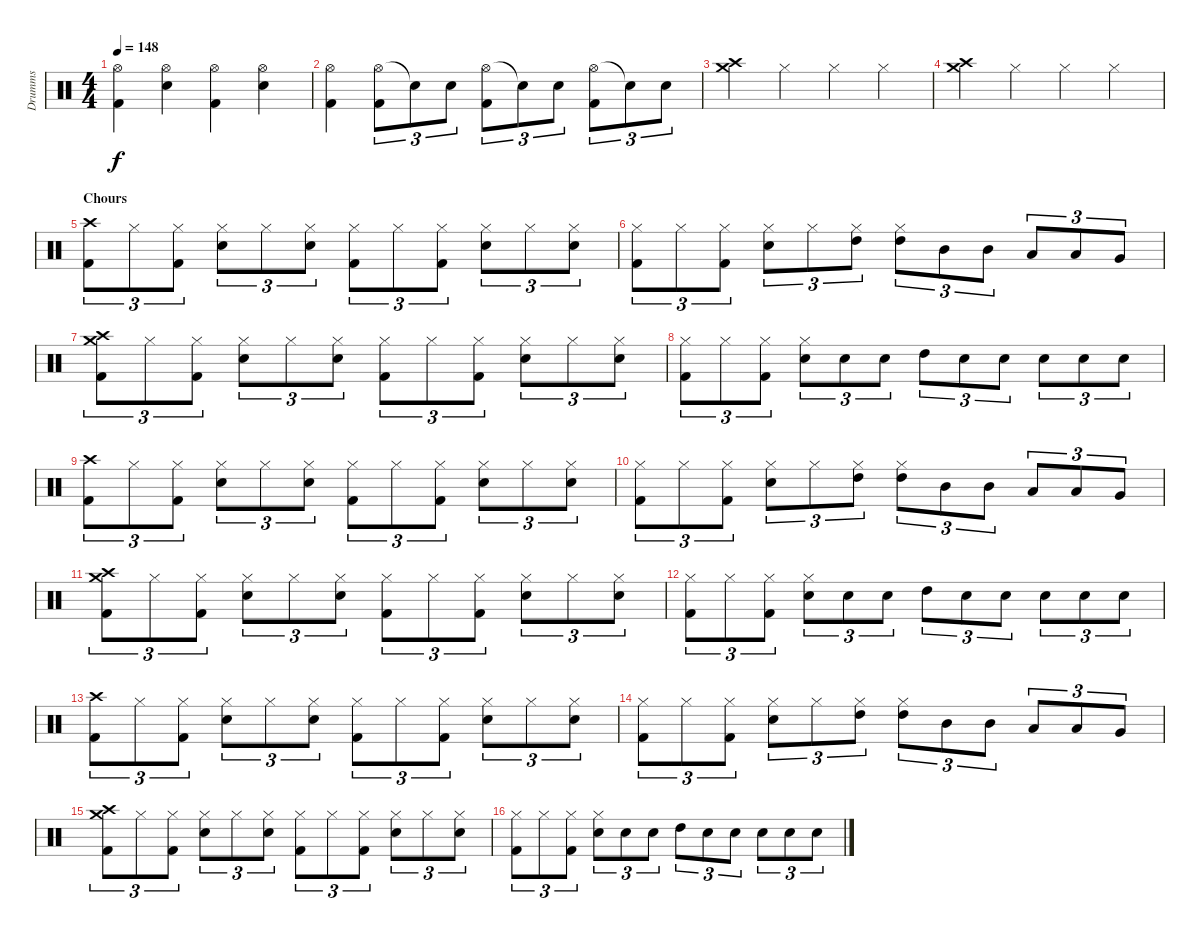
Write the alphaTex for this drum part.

\track ("Drumms" "Drumms") {instrument percussion}
\staff {score}
\articulation defaults
\ts (4 4)
\tempo 148
\clef neutral
\ks c
("Hi-Hat (open)" "Kick (hit) 2").4{dy f} ("Hi-Hat (open)" "Snare (hit) 2").4 ("Hi-Hat (open)" "Kick (hit) 2").4 ("Hi-Hat (open)" "Snare (hit) 2").4 |
("Hi-Hat (open)" "Kick (hit) 2").4 ("Hi-Hat (open)" "Kick (hit) 2").8{tu (3 2)} "Snare (hit)"{t}.8{tu (3 2)} "Snare (hit) 2".8{tu (3 2)} ("Hi-Hat (open)" "Kick (hit) 2").8{tu (3 2)} "Snare (hit)"{t}.8{tu (3 2)} "Snare (hit) 2".8{tu (3 2)} ("Hi-Hat (open)" "Kick (hit) 2").8{tu (3 2)} "Snare (hit) 2"{t}.8{tu (3 2)} "Snare (hit) 2".8{tu (3 2)} |
("Crash medium (hit)" "Crash high (hit)").4 "Hi-Hat (closed)".4 "Hi-Hat (closed)".4 "Hi-Hat (closed)".4 |
("Crash medium (hit)" "Crash high (hit)").4 "Hi-Hat (closed)".4 "Hi-Hat (closed)".4 "Hi-Hat (closed)".4 |
\section ("" "Chours")
("Crash high (hit)" "Kick (hit) 2").8{tu (3 2)} "Hi-Hat (closed)".8{tu (3 2)} ("Hi-Hat (closed)" "Kick (hit) 2").8{tu (3 2)} ("Hi-Hat (closed)" "Snare (hit) 2").8{tu (3 2)} "Hi-Hat (closed)".8{tu (3 2)} ("Hi-Hat (closed)" "Snare (hit) 2").8{tu (3 2)} ("Hi-Hat (closed)" "Kick (hit) 2").8{tu (3 2)} "Hi-Hat (closed)".8{tu (3 2)} ("Hi-Hat (closed)" "Kick (hit) 2").8{tu (3 2)} ("Hi-Hat (closed)" "Snare (hit) 2").8{tu (3 2)} "Hi-Hat (closed)".8{tu (3 2)} ("Hi-Hat (closed)" "Snare (hit) 2").8{tu (3 2)} |
("Hi-Hat (closed)" "Kick (hit) 2").8{tu (3 2)} "Hi-Hat (closed)".8{tu (3 2)} ("Hi-Hat (closed)" "Kick (hit) 2").8{tu (3 2)} ("Hi-Hat (closed)" "Snare (hit) 2").8{tu (3 2)} "Hi-Hat (closed)".8{tu (3 2)} ("Hi-Hat (closed)" "High Tom (hit)").8{tu (3 2)} ("Hi-Hat (closed)" "High Tom (hit)").8{tu (3 2)} "Mid Tom (hit)".8{tu (3 2)} "Mid Tom (hit)".8{tu (3 2)} "Low Tom (hit)".8{tu (3 2)} "Low Tom (hit)".8{tu (3 2)} "Very Low Tom (hit)".8{tu (3 2)} |
("Crash high (hit)" "Crash medium (hit)" "Kick (hit) 2").8{tu (3 2)} "Hi-Hat (closed)".8{tu (3 2)} ("Hi-Hat (closed)" "Kick (hit) 2").8{tu (3 2)} ("Hi-Hat (closed)" "Snare (hit) 2").8{tu (3 2)} "Hi-Hat (closed)".8{tu (3 2)} ("Hi-Hat (closed)" "Snare (hit) 2").8{tu (3 2)} ("Hi-Hat (closed)" "Kick (hit) 2").8{tu (3 2)} "Hi-Hat (closed)".8{tu (3 2)} ("Hi-Hat (closed)" "Kick (hit) 2").8{tu (3 2)} ("Hi-Hat (closed)" "Snare (hit) 2").8{tu (3 2)} "Hi-Hat (closed)".8{tu (3 2)} ("Hi-Hat (closed)" "Snare (hit) 2").8{tu (3 2)} |
("Hi-Hat (closed)" "Kick (hit) 2").8{tu (3 2)} "Hi-Hat (closed)".8{tu (3 2)} ("Hi-Hat (closed)" "Kick (hit) 2").8{tu (3 2)} ("Hi-Hat (closed)" "Snare (hit) 2").8{tu (3 2)} "Snare (hit) 2".8{tu (3 2)} "Snare (hit) 2".8{tu (3 2)} "High Tom (hit)".8{tu (3 2)} "Snare (hit) 2".8{tu (3 2)} "Snare (hit) 2".8{tu (3 2)} "Snare (hit) 2".8{tu (3 2)} "Snare (hit) 2".8{tu (3 2)} "Snare (hit) 2".8{tu (3 2)} |
("Crash high (hit)" "Kick (hit) 2").8{tu (3 2)} "Hi-Hat (closed)".8{tu (3 2)} ("Hi-Hat (closed)" "Kick (hit) 2").8{tu (3 2)} ("Hi-Hat (closed)" "Snare (hit) 2").8{tu (3 2)} "Hi-Hat (closed)".8{tu (3 2)} ("Hi-Hat (closed)" "Snare (hit) 2").8{tu (3 2)} ("Hi-Hat (closed)" "Kick (hit) 2").8{tu (3 2)} "Hi-Hat (closed)".8{tu (3 2)} ("Hi-Hat (closed)" "Kick (hit) 2").8{tu (3 2)} ("Hi-Hat (closed)" "Snare (hit) 2").8{tu (3 2)} "Hi-Hat (closed)".8{tu (3 2)} ("Hi-Hat (closed)" "Snare (hit) 2").8{tu (3 2)} |
("Hi-Hat (closed)" "Kick (hit) 2").8{tu (3 2)} "Hi-Hat (closed)".8{tu (3 2)} ("Hi-Hat (closed)" "Kick (hit) 2").8{tu (3 2)} ("Hi-Hat (closed)" "Snare (hit) 2").8{tu (3 2)} "Hi-Hat (closed)".8{tu (3 2)} ("Hi-Hat (closed)" "High Tom (hit)").8{tu (3 2)} ("Hi-Hat (closed)" "High Tom (hit)").8{tu (3 2)} "Mid Tom (hit)".8{tu (3 2)} "Mid Tom (hit)".8{tu (3 2)} "Low Tom (hit)".8{tu (3 2)} "Low Tom (hit)".8{tu (3 2)} "Very Low Tom (hit)".8{tu (3 2)} |
("Crash high (hit)" "Crash medium (hit)" "Kick (hit) 2").8{tu (3 2)} "Hi-Hat (closed)".8{tu (3 2)} ("Hi-Hat (closed)" "Kick (hit) 2").8{tu (3 2)} ("Hi-Hat (closed)" "Snare (hit) 2").8{tu (3 2)} "Hi-Hat (closed)".8{tu (3 2)} ("Hi-Hat (closed)" "Snare (hit) 2").8{tu (3 2)} ("Hi-Hat (closed)" "Kick (hit) 2").8{tu (3 2)} "Hi-Hat (closed)".8{tu (3 2)} ("Hi-Hat (closed)" "Kick (hit) 2").8{tu (3 2)} ("Hi-Hat (closed)" "Snare (hit) 2").8{tu (3 2)} "Hi-Hat (closed)".8{tu (3 2)} ("Hi-Hat (closed)" "Snare (hit) 2").8{tu (3 2)} |
("Hi-Hat (closed)" "Kick (hit) 2").8{tu (3 2)} "Hi-Hat (closed)".8{tu (3 2)} ("Hi-Hat (closed)" "Kick (hit) 2").8{tu (3 2)} ("Hi-Hat (closed)" "Snare (hit) 2").8{tu (3 2)} "Snare (hit) 2".8{tu (3 2)} "Snare (hit) 2".8{tu (3 2)} "High Tom (hit)".8{tu (3 2)} "Snare (hit) 2".8{tu (3 2)} "Snare (hit) 2".8{tu (3 2)} "Snare (hit) 2".8{tu (3 2)} "Snare (hit) 2".8{tu (3 2)} "Snare (hit) 2".8{tu (3 2)} |
("Crash high (hit)" "Kick (hit) 2").8{tu (3 2)} "Hi-Hat (closed)".8{tu (3 2)} ("Hi-Hat (closed)" "Kick (hit) 2").8{tu (3 2)} ("Hi-Hat (closed)" "Snare (hit) 2").8{tu (3 2)} "Hi-Hat (closed)".8{tu (3 2)} ("Hi-Hat (closed)" "Snare (hit) 2").8{tu (3 2)} ("Hi-Hat (closed)" "Kick (hit) 2").8{tu (3 2)} "Hi-Hat (closed)".8{tu (3 2)} ("Hi-Hat (closed)" "Kick (hit) 2").8{tu (3 2)} ("Hi-Hat (closed)" "Snare (hit) 2").8{tu (3 2)} "Hi-Hat (closed)".8{tu (3 2)} ("Hi-Hat (closed)" "Snare (hit) 2").8{tu (3 2)} |
("Hi-Hat (closed)" "Kick (hit) 2").8{tu (3 2)} "Hi-Hat (closed)".8{tu (3 2)} ("Hi-Hat (closed)" "Kick (hit) 2").8{tu (3 2)} ("Hi-Hat (closed)" "Snare (hit) 2").8{tu (3 2)} "Hi-Hat (closed)".8{tu (3 2)} ("Hi-Hat (closed)" "High Tom (hit)").8{tu (3 2)} ("Hi-Hat (closed)" "High Tom (hit)").8{tu (3 2)} "Mid Tom (hit)".8{tu (3 2)} "Mid Tom (hit)".8{tu (3 2)} "Low Tom (hit)".8{tu (3 2)} "Low Tom (hit)".8{tu (3 2)} "Very Low Tom (hit)".8{tu (3 2)} |
("Crash high (hit)" "Crash medium (hit)" "Kick (hit) 2").8{tu (3 2)} "Hi-Hat (closed)".8{tu (3 2)} ("Hi-Hat (closed)" "Kick (hit) 2").8{tu (3 2)} ("Hi-Hat (closed)" "Snare (hit) 2").8{tu (3 2)} "Hi-Hat (closed)".8{tu (3 2)} ("Hi-Hat (closed)" "Snare (hit) 2").8{tu (3 2)} ("Hi-Hat (closed)" "Kick (hit) 2").8{tu (3 2)} "Hi-Hat (closed)".8{tu (3 2)} ("Hi-Hat (closed)" "Kick (hit) 2").8{tu (3 2)} ("Hi-Hat (closed)" "Snare (hit) 2").8{tu (3 2)} "Hi-Hat (closed)".8{tu (3 2)} ("Hi-Hat (closed)" "Snare (hit) 2").8{tu (3 2)} |
("Hi-Hat (closed)" "Kick (hit) 2").8{tu (3 2)} "Hi-Hat (closed)".8{tu (3 2)} ("Hi-Hat (closed)" "Kick (hit) 2").8{tu (3 2)} ("Hi-Hat (closed)" "Snare (hit) 2").8{tu (3 2)} "Snare (hit) 2".8{tu (3 2)} "Snare (hit) 2".8{tu (3 2)} "High Tom (hit)".8{tu (3 2)} "Snare (hit) 2".8{tu (3 2)} "Snare (hit) 2".8{tu (3 2)} "Snare (hit) 2".8{tu (3 2)} "Snare (hit) 2".8{tu (3 2)} "Snare (hit) 2".8{tu (3 2)}
